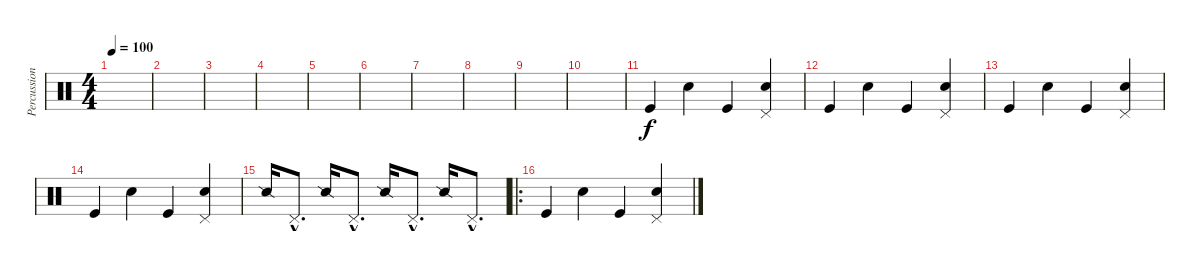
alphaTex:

\track ("Percussion" "Percussion") {instrument percussion}
\staff {score}
\articulation defaults
\ts (4 4)
\tempo 100
\clef neutral
\ks c
|
|
|
|
|
|
|
|
|
|
"Kick (hit)".4 "Snare (hit) 2".4 "Kick (hit)".4 ("Pedal Hi-Hat (hit)" "Snare (hit) 2").4 |
"Kick (hit)".4 "Snare (hit) 2".4 "Kick (hit)".4 ("Pedal Hi-Hat (hit)" "Snare (hit) 2").4 |
"Kick (hit)".4 "Snare (hit) 2".4 "Kick (hit)".4 ("Pedal Hi-Hat (hit)" "Snare (hit) 2").4 |
"Kick (hit)".4 "Snare (hit) 2".4 "Kick (hit)".4 ("Pedal Hi-Hat (hit)" "Snare (hit) 2").4 |
"Snare (side stick) 2".16 "Pedal Hi-Hat (hit)"{hac}.8{d} "Snare (side stick) 2".16 "Pedal Hi-Hat (hit)"{hac}.8{d} "Snare (side stick) 2".16 "Pedal Hi-Hat (hit)"{hac}.8{d} "Snare (side stick) 2".16 "Pedal Hi-Hat (hit)"{hac}.8{d} |
\ro "Kick (hit)".4 "Snare (hit) 2".4 "Kick (hit)".4
("Pedal Hi-Hat (hit)" "Snare (hit) 2").4
